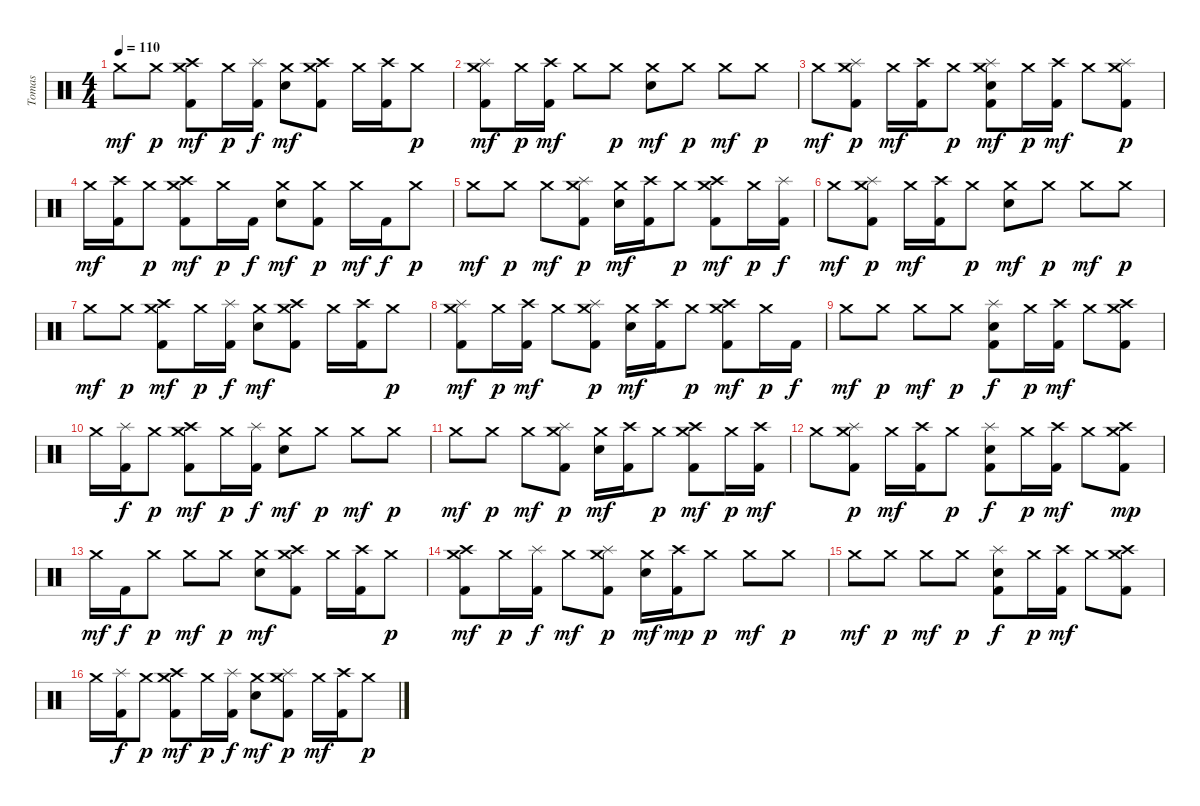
\track ("Tomas" "Tomas") {instrument percussion}
\staff {score}
\articulation defaults
\ts (4 4)
\tempo 110
\clef neutral
\ks c "Crash medium (hit)".8{dy mf} "Crash medium (hit)".8{dy p}
("Crash medium (hit)" "Crash high (hit)" "Kick (hit) 2").8{dy mf} "Crash medium (hit)".16{dy p} ("Splash (hit)" "Kick (hit) 2").16{dy f} ("Crash medium (hit)" "Electric Snare (hit)").8{dy mf} ("Crash medium (hit)" "Crash high (hit)" "Kick (hit) 2").8 "Crash medium (hit)".16 ("Crash high (hit)" "Kick (hit) 2").16 "Crash medium (hit)".8{dy p} |
("Crash medium (hit)" "Splash (hit)" "Kick (hit) 2").8{dy mf} "Crash medium (hit)".16{dy p} ("Crash high (hit)" "Kick (hit) 2").16{dy mf} "Crash medium (hit)".8 "Crash medium (hit)".8{dy p} ("Crash medium (hit)" "Electric Snare (hit)").8{dy mf} "Crash medium (hit)".8{dy p} "Crash medium (hit)".8{dy mf} "Crash medium (hit)".8{dy p} |
"Crash medium (hit)".8{dy mf} ("Crash medium (hit)" "Splash (hit)" "Kick (hit) 2").8{dy p} "Crash medium (hit)".16{dy mf} ("Crash high (hit)" "Kick (hit) 2").16 "Crash medium (hit)".8{dy p} ("Crash medium (hit)" "Splash (hit)" "Electric Snare (hit)" "Kick (hit) 2").8{dy mf} "Crash medium (hit)".16{dy p} ("Crash high (hit)" "Kick (hit) 2").16{dy mf} "Crash medium (hit)".8 ("Crash medium (hit)" "Splash (hit)" "Kick (hit) 2").8{dy p} |
"Crash medium (hit)".16{dy mf} ("Crash high (hit)" "Kick (hit) 2").16 "Crash medium (hit)".8{dy p} ("Crash medium (hit)" "Crash high (hit)" "Kick (hit) 2").8{dy mf} "Crash medium (hit)".16{dy p} "Kick (hit) 2".16{dy f} ("Crash medium (hit)" "Electric Snare (hit)").8{dy mf} ("Crash medium (hit)" "Kick (hit) 2").8{dy p} "Crash medium (hit)".16{dy mf} "Kick (hit) 2".16{dy f} "Crash medium (hit)".8{dy p} |
"Crash medium (hit)".8{dy mf} "Crash medium (hit)".8{dy p} "Crash medium (hit)".8{dy mf} ("Crash medium (hit)" "Splash (hit)" "Kick (hit) 2").8{dy p} ("Crash medium (hit)" "Electric Snare (hit)").16{dy mf} ("Crash high (hit)" "Kick (hit) 2").16 "Crash medium (hit)".8{dy p} ("Crash medium (hit)" "Crash high (hit)" "Kick (hit) 2").8{dy mf} "Crash medium (hit)".16{dy p} ("Splash (hit)" "Kick (hit) 2").16{dy f} |
"Crash medium (hit)".8{dy mf} ("Crash medium (hit)" "Splash (hit)" "Kick (hit) 2").8{dy p} "Crash medium (hit)".16{dy mf} ("Crash high (hit)" "Kick (hit) 2").16 "Crash medium (hit)".8{dy p} ("Crash medium (hit)" "Electric Snare (hit)").8{dy mf} "Crash medium (hit)".8{dy p} "Crash medium (hit)".8{dy mf} "Crash medium (hit)".8{dy p} |
"Crash medium (hit)".8{dy mf} "Crash medium (hit)".8{dy p} ("Crash medium (hit)" "Crash high (hit)" "Kick (hit) 2").8{dy mf} "Crash medium (hit)".16{dy p} ("Splash (hit)" "Kick (hit) 2").16{dy f} ("Crash medium (hit)" "Electric Snare (hit)").8{dy mf} ("Crash medium (hit)" "Crash high (hit)" "Kick (hit) 2").8 "Crash medium (hit)".16 ("Crash high (hit)" "Kick (hit) 2").16 "Crash medium (hit)".8{dy p} |
("Crash medium (hit)" "Splash (hit)" "Kick (hit) 2").8{dy mf} "Crash medium (hit)".16{dy p} ("Crash high (hit)" "Kick (hit) 2").16{dy mf} "Crash medium (hit)".8 ("Crash medium (hit)" "Splash (hit)" "Kick (hit) 2").8{dy p} ("Crash medium (hit)" "Electric Snare (hit)").16{dy mf} ("Crash high (hit)" "Kick (hit) 2").16 "Crash medium (hit)".8{dy p} ("Crash medium (hit)" "Crash high (hit)" "Kick (hit) 2").8{dy mf} "Crash medium (hit)".16{dy p} "Kick (hit) 2".16{dy f} |
"Crash medium (hit)".8{dy mf} "Crash medium (hit)".8{dy p} "Crash medium (hit)".8{dy mf} "Crash medium (hit)".8{dy p} ("Splash (hit)" "Electric Snare (hit)" "Kick (hit) 2").8{dy f} "Crash medium (hit)".16{dy p} ("Crash high (hit)" "Kick (hit) 2").16{dy mf} "Crash medium (hit)".8 ("Crash medium (hit)" "Crash high (hit)" "Kick (hit) 2").8 |
"Crash medium (hit)".16 ("Splash (hit)" "Kick (hit) 2").16{dy f} "Crash medium (hit)".8{dy p} ("Crash medium (hit)" "Crash high (hit)" "Kick (hit) 2").8{dy mf} "Crash medium (hit)".16{dy p} ("Splash (hit)" "Kick (hit) 2").16{dy f} ("Crash medium (hit)" "Electric Snare (hit)").8{dy mf} "Crash medium (hit)".8{dy p} "Crash medium (hit)".8{dy mf} "Crash medium (hit)".8{dy p} |
"Crash medium (hit)".8{dy mf} "Crash medium (hit)".8{dy p} "Crash medium (hit)".8{dy mf} ("Crash medium (hit)" "Splash (hit)" "Kick (hit) 2").8{dy p} ("Crash medium (hit)" "Electric Snare (hit)").16{dy mf} ("Crash high (hit)" "Kick (hit) 2").16 "Crash medium (hit)".8{dy p} ("Crash medium (hit)" "Crash high (hit)" "Kick (hit) 2").8{dy mf} "Crash medium (hit)".16{dy p} ("Crash high (hit)" "Kick (hit) 2").16{dy mf} |
"Crash medium (hit)".8 ("Crash medium (hit)" "Splash (hit)" "Kick (hit) 2").8{dy p} "Crash medium (hit)".16{dy mf} ("Crash high (hit)" "Kick (hit) 2").16 "Crash medium (hit)".8{dy p} ("Splash (hit)" "Electric Snare (hit)" "Kick (hit) 2").8{dy f} "Crash medium (hit)".16{dy p} ("Crash high (hit)" "Kick (hit) 2").16{dy mf} "Crash medium (hit)".8 ("Crash medium (hit)" "Crash high (hit)" "Kick (hit) 2").8{dy mp} |
"Crash medium (hit)".16{dy mf} "Kick (hit) 2".16{dy f} "Crash medium (hit)".8{dy p} "Crash medium (hit)".8{dy mf} "Crash medium (hit)".8{dy p} ("Crash medium (hit)" "Electric Snare (hit)").8{dy mf} ("Crash medium (hit)" "Crash high (hit)" "Kick (hit) 2").8 "Crash medium (hit)".16 ("Crash high (hit)" "Kick (hit) 2").16 "Crash medium (hit)".8{dy p} |
("Crash medium (hit)" "Crash high (hit)" "Kick (hit) 2").8{dy mf} "Crash medium (hit)".16{dy p} ("Splash (hit)" "Kick (hit) 2").16{dy f} "Crash medium (hit)".8{dy mf} ("Crash medium (hit)" "Splash (hit)" "Kick (hit) 2").8{dy p} ("Crash medium (hit)" "Electric Snare (hit)").16{dy mf} ("Crash high (hit)" "Kick (hit) 2").16{dy mp} "Crash medium (hit)".8{dy p} "Crash medium (hit)".8{dy mf} "Crash medium (hit)".8{dy p} |
"Crash medium (hit)".8{dy mf} "Crash medium (hit)".8{dy p} "Crash medium (hit)".8{dy mf} "Crash medium (hit)".8{dy p} ("Splash (hit)" "Electric Snare (hit)" "Kick (hit) 2").8{dy f} "Crash medium (hit)".16{dy p} ("Crash high (hit)" "Kick (hit) 2").16{dy mf} "Crash medium (hit)".8 ("Crash medium (hit)" "Crash high (hit)" "Kick (hit) 2").8 |
"Crash medium (hit)".16 ("Splash (hit)" "Kick (hit) 2").16{dy f} "Crash medium (hit)".8{dy p} ("Crash medium (hit)" "Crash high (hit)" "Kick (hit) 2").8{dy mf} "Crash medium (hit)".16{dy p} ("Splash (hit)" "Kick (hit) 2").16{dy f} ("Crash medium (hit)" "Electric Snare (hit)").8{dy mf} ("Crash medium (hit)" "Splash (hit)" "Kick (hit) 2").8{dy p} "Crash medium (hit)".16{dy mf} ("Crash high (hit)" "Kick (hit) 2").16 "Crash medium (hit)".8{dy p}
